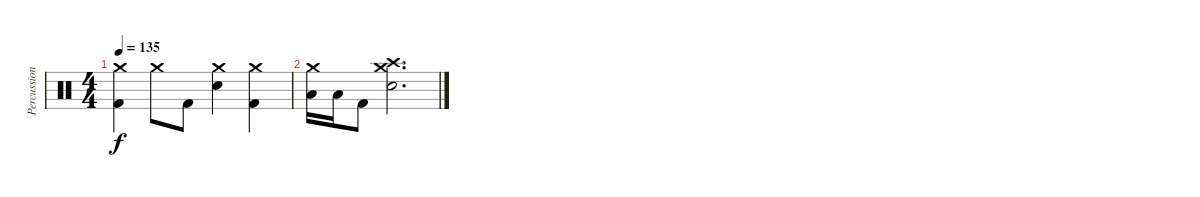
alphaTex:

\track ("Percussion" "Percussion") {instrument percussion}
\staff {score}
\articulation defaults
\ts (4 4)
\tempo 135
\clef neutral
\ks c
("Crash medium (hit)" "Kick (hit) 2").4{dy f} "Crash medium (hit)".8 "Kick (hit) 2".8 ("Crash medium (hit)" "Electric Snare (hit)").4 ("Crash medium (hit)" "Kick (hit) 2").4 |
("Crash medium (hit)" "Low Tom (hit)").16 "Low Tom (hit)".16 "Kick (hit) 2".8 ("Crash medium (hit)" "Crash high (hit)" "Electric Snare (hit)").2{d}
